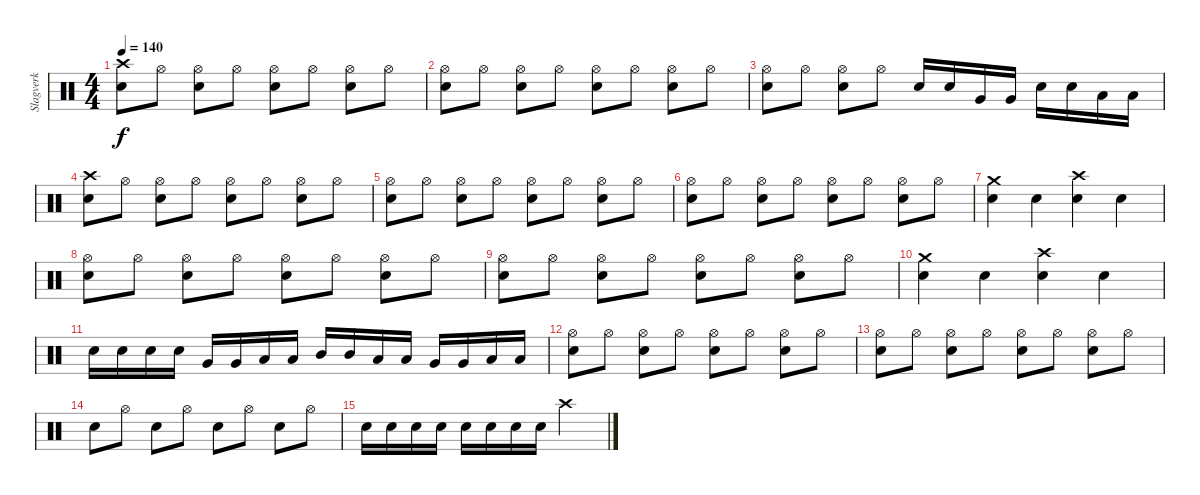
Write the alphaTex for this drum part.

\track ("Slagverk" "Slagverk") {instrument percussion}
\staff {score}
\articulation defaults
\ts (4 4)
\tempo 140
\clef neutral
\ks c
("Crash high (hit)" "Snare (hit) 2").8{dy f} "Hi-Hat (open)".8 ("Hi-Hat (open)" "Snare (hit) 2").8 "Hi-Hat (open)".8 ("Hi-Hat (open)" "Snare (hit) 2").8 "Hi-Hat (open)".8 ("Hi-Hat (open)" "Snare (hit) 2").8 "Hi-Hat (open)".8 |
("Hi-Hat (open)" "Snare (hit) 2").8 "Hi-Hat (open)".8 ("Hi-Hat (open)" "Snare (hit) 2").8 "Hi-Hat (open)".8 ("Hi-Hat (open)" "Snare (hit) 2").8 "Hi-Hat (open)".8 ("Hi-Hat (open)" "Snare (hit) 2").8 "Hi-Hat (open)".8 |
("Hi-Hat (open)" "Snare (hit) 2").8 "Hi-Hat (open)".8 ("Hi-Hat (open)" "Snare (hit) 2").8 "Hi-Hat (open)".8 "Snare (hit) 2".16 "Snare (hit) 2".16 "Very Low Tom (hit)".16 "Very Low Tom (hit)".16 "Snare (hit) 2".16 "Snare (hit) 2".16 "Low Tom (hit)".16 "Low Tom (hit)".16 |
("Crash high (hit)" "Snare (hit) 2").8 "Hi-Hat (open)".8 ("Hi-Hat (open)" "Snare (hit) 2").8 "Hi-Hat (open)".8 ("Hi-Hat (open)" "Snare (hit) 2").8 "Hi-Hat (open)".8 ("Hi-Hat (open)" "Snare (hit) 2").8 "Hi-Hat (open)".8 |
("Hi-Hat (open)" "Snare (hit) 2").8 "Hi-Hat (open)".8 ("Hi-Hat (open)" "Snare (hit) 2").8 "Hi-Hat (open)".8 ("Hi-Hat (open)" "Snare (hit) 2").8 "Hi-Hat (open)".8 ("Hi-Hat (open)" "Snare (hit) 2").8 "Hi-Hat (open)".8 |
("Hi-Hat (open)" "Snare (hit) 2").8 "Hi-Hat (open)".8 ("Hi-Hat (open)" "Snare (hit) 2").8 "Hi-Hat (open)".8 ("Hi-Hat (open)" "Snare (hit) 2").8 "Hi-Hat (open)".8 ("Hi-Hat (open)" "Snare (hit) 2").8 "Hi-Hat (open)".8 |
("Crash medium (hit)" "Snare (hit) 2").4 "Snare (hit) 2".4 ("Crash high (hit)" "Snare (hit) 2").4 "Snare (hit) 2".4 |
("Hi-Hat (open)" "Snare (hit) 2").8 "Hi-Hat (open)".8 ("Hi-Hat (open)" "Snare (hit) 2").8 "Hi-Hat (open)".8 ("Hi-Hat (open)" "Snare (hit) 2").8 "Hi-Hat (open)".8 ("Hi-Hat (open)" "Snare (hit) 2").8 "Hi-Hat (open)".8 |
("Hi-Hat (open)" "Snare (hit) 2").8 "Hi-Hat (open)".8 ("Hi-Hat (open)" "Snare (hit) 2").8 "Hi-Hat (open)".8 ("Hi-Hat (open)" "Snare (hit) 2").8 "Hi-Hat (open)".8 ("Hi-Hat (open)" "Snare (hit) 2").8 "Hi-Hat (open)".8 |
("Crash medium (hit)" "Snare (hit) 2").4 "Snare (hit) 2".4 ("Crash high (hit)" "Snare (hit) 2").4 "Snare (hit) 2".4 |
"Snare (hit) 2".16 "Snare (hit) 2".16 "Snare (hit) 2".16 "Snare (hit) 2".16 "Very Low Tom (hit)".16 "Very Low Tom (hit)".16 "Low Tom (hit)".16 "Low Tom (hit)".16 "Mid Tom (hit)".16 "Mid Tom (hit)".16 "Low Tom (hit)".16 "Low Tom (hit)".16 "Very Low Tom (hit)".16 "Very Low Tom (hit)".16 "Low Floor Tom (hit)".16 "Low Floor Tom (hit)".16 |
("Hi-Hat (open)" "Snare (hit) 2").8 "Hi-Hat (open)".8 ("Hi-Hat (open)" "Snare (hit) 2").8 "Hi-Hat (open)".8 ("Hi-Hat (open)" "Snare (hit) 2").8 "Hi-Hat (open)".8 ("Hi-Hat (open)" "Snare (hit) 2").8 "Hi-Hat (open)".8 |
("Hi-Hat (open)" "Snare (hit) 2").8 "Hi-Hat (open)".8 ("Hi-Hat (open)" "Snare (hit) 2").8 "Hi-Hat (open)".8 ("Hi-Hat (open)" "Snare (hit) 2").8 "Hi-Hat (open)".8 ("Hi-Hat (open)" "Snare (hit) 2").8 "Hi-Hat (open)".8 |
"Snare (hit) 2".8 "Hi-Hat (open)".8 "Snare (hit) 2".8 "Hi-Hat (open)".8 "Snare (hit) 2".8 "Hi-Hat (open)".8 "Snare (hit) 2".8 "Hi-Hat (open)".8 |
"Snare (hit) 2".16 "Snare (hit) 2".16 "Snare (hit) 2".16 "Snare (hit) 2".16 "Snare (hit) 2".16 "Snare (hit) 2".16 "Snare (hit) 2".16 "Snare (hit) 2".16 "Crash high (hit)".2
